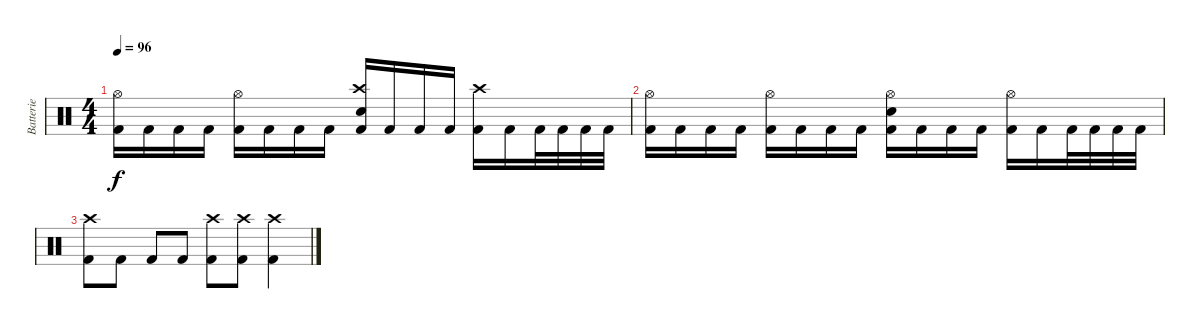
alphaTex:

\track ("Batterie" "Batterie") {instrument percussion}
\staff {score}
\articulation defaults
\ts (4 4)
\tempo 96
\clef neutral
\ks c
("Hi-Hat (open)" "Kick (hit) 2").16{dy f} "Kick (hit) 2".16 "Kick (hit) 2".16 "Kick (hit) 2".16 ("Hi-Hat (open)" "Kick (hit) 2").16 "Kick (hit) 2".16 "Kick (hit) 2".16 "Kick (hit) 2".16 ("Crash high (hit)" "Snare (hit) 2" "Kick (hit) 2").16 "Kick (hit) 2".16 "Kick (hit) 2".16 "Kick (hit) 2".16 ("Crash high (hit)" "Kick (hit) 2").16 "Kick (hit) 2".16 "Kick (hit) 2".32 "Kick (hit) 2".32 "Kick (hit) 2".32 "Kick (hit) 2".32 |
("Hi-Hat (open)" "Kick (hit) 2").16 "Kick (hit) 2".16 "Kick (hit) 2".16 "Kick (hit) 2".16 ("Hi-Hat (open)" "Kick (hit) 2").16 "Kick (hit) 2".16 "Kick (hit) 2".16 "Kick (hit) 2".16 ("Hi-Hat (open)" "Snare (hit) 2" "Kick (hit) 2").16 "Kick (hit) 2".16 "Kick (hit) 2".16 "Kick (hit) 2".16 ("Hi-Hat (open)" "Kick (hit) 2").16 "Kick (hit) 2".16 "Kick (hit) 2".32 "Kick (hit) 2".32 "Kick (hit) 2".32 "Kick (hit) 2".32 |
("Crash high (hit)" "Kick (hit) 2").8 "Kick (hit) 2".8 "Kick (hit) 2".8 "Kick (hit) 2".8 ("Crash high (hit)" "Kick (hit) 2").8 ("Crash high (hit)" "Kick (hit) 2").8 ("Crash high (hit)" "Kick (hit) 2").4
